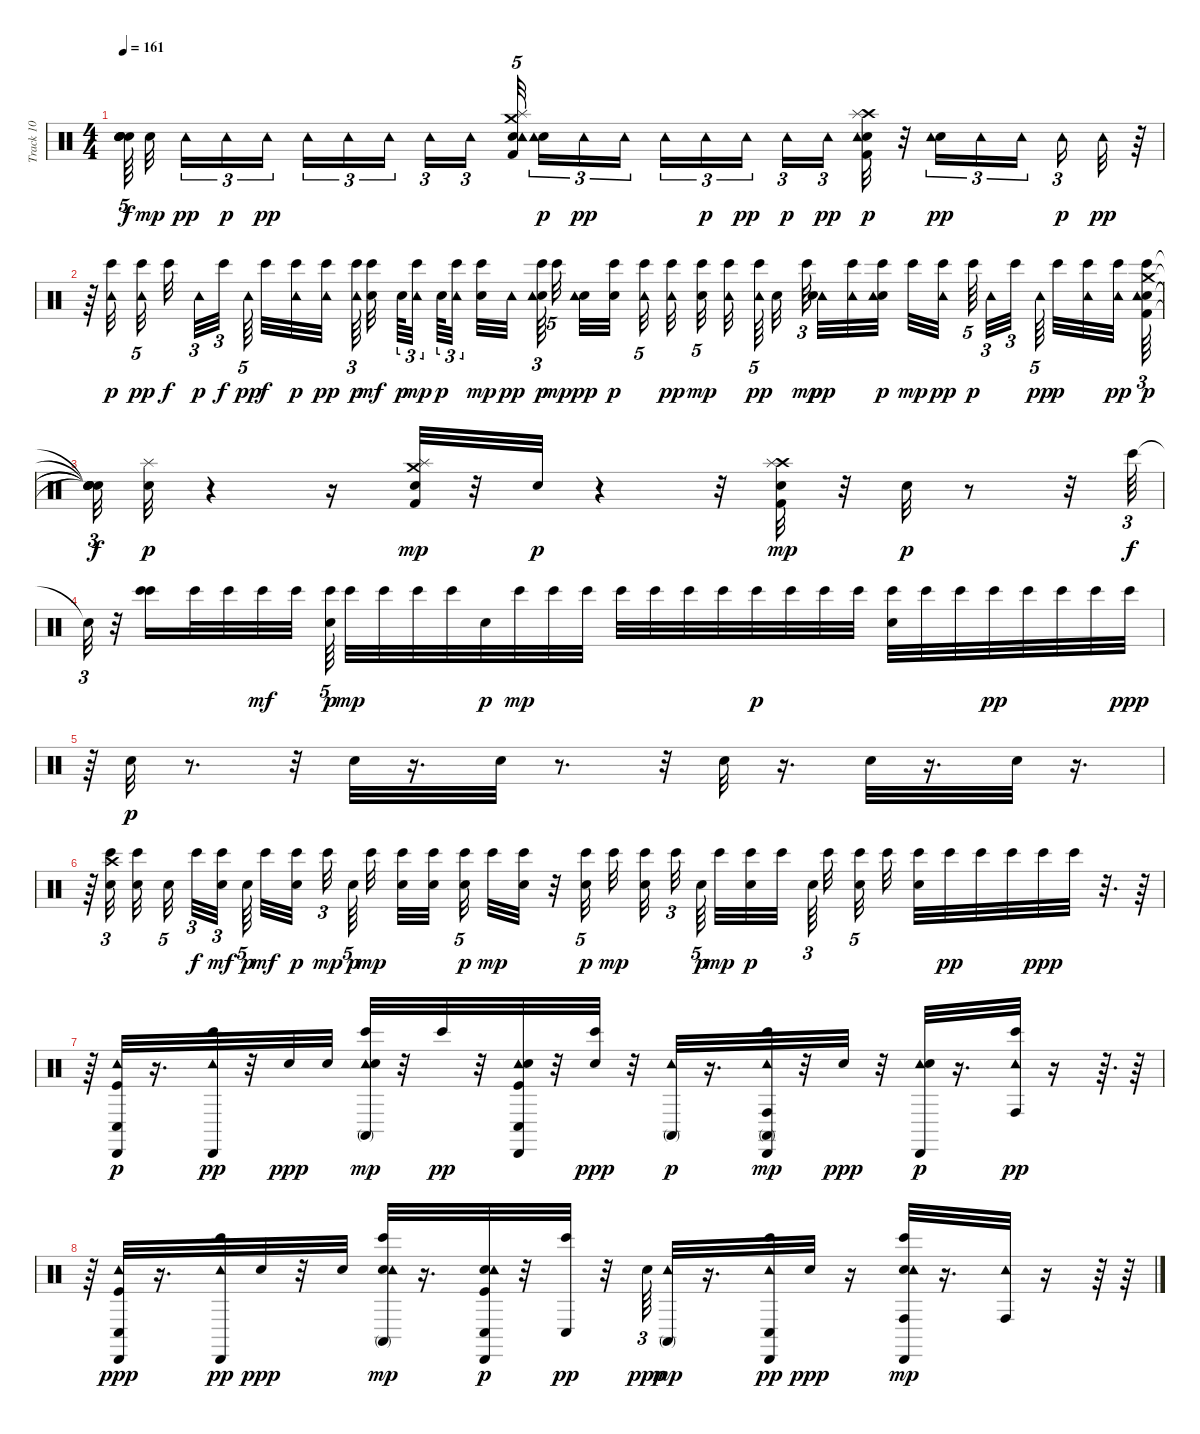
\track ("Track 10" "Track 10") {instrument percussion}
\staff {score}
\articulation defaults
\ts (4 4)
\tempo 161
\clef neutral
\ks c
("Snare (hit)"{t} "Snare (hit)"{t} "Snare (hit)"{t} "Snare (hit)"{t} "Snare (hit)"{t}).64{tu (5 4) dy f beam splitsecondary} "Electric Snare (hit)".32{dy mp beam splitsecondary} "Tambourine (hit)".16{tu (3 2) dy pp} "Tambourine (hit)".16{tu (3 2) dy p} "Tambourine (hit)".16{tu (3 2) dy pp beam splitsecondary} "Tambourine (hit)".16{tu (3 2)} "Tambourine (hit)".16{tu (3 2)} "Tambourine (hit)".16{tu (3 2) beam splitsecondary} "Tambourine (hit)".16{tu (3 2)} "Tambourine (hit)".16{tu (3 2)} ("Crash medium (hit)" "Electric Snare (hit)" "Splash (hit)" "Kick (hit) 2" "Tambourine (hit)").32{tu (5 4)} ("Electric Snare (hit)" "Tambourine (hit)").16{tu (3 2) dy p} "Tambourine (hit)".16{tu (3 2) dy pp} "Tambourine (hit)".16{tu (3 2)} "Tambourine (hit)".16{tu (3 2)} "Tambourine (hit)".16{tu (3 2) dy p} "Tambourine (hit)".16{tu (3 2) dy pp beam splitsecondary} "Tambourine (hit)".16{tu (3 2) dy p} "Tambourine (hit)".16{tu (3 2) dy pp beam splitsecondary} ("Crash high (hit)" "Electric Snare (hit)" "Kick (hit) 2" "Splash (hit)" "Tambourine (hit)").32{dy p} r.32 ("Electric Snare (hit)" "Tambourine (hit)").16{tu (3 2) dy pp} "Tambourine (hit)".16{tu (3 2)} "Tambourine (hit)".16{tu (3 2) beam splitsecondary} "Tambourine (hit)".16{tu (3 2) dy p} "Tambourine (hit)".32{dy pp} r.64 |
r.64 ("Bongo High (hit)" "Tambourine (hit)").32{dy p beam splitsecondary} ("Bongo High (hit)" "Tambourine (hit)").32{tu (5 4) dy pp beam splitsecondary} "Bongo High (hit)".32{dy f beam splitsecondary} "Tambourine (hit)".32{tu (3 2) dy p} "Bongo High (hit)".32{tu (3 2) dy f} "Tambourine (hit)".64{tu (5 4) dy pp beam splitsecondary} "Bongo High (hit)".32{dy f} ("Tambourine (hit)" "Bongo High (hit)").32{dy p} ("Bongo High (hit)" "Tambourine (hit)").32{dy pp} ("Bongo High (hit)" "Tambourine (hit)").64{tu (3 2) dy p beam splitsecondary} ("Electric Snare (hit)" "Bongo High (hit)").32{dy mf beam splitsecondary} "Electric Snare (hit)".64{tu (3 2) dy p} ("Tambourine (hit)" "Bongo High (hit)").32{tu (3 2) dy mp beam splitsecondary} "Electric Snare (hit)".64{tu (3 2) dy p} ("Bongo High (hit)" "Tambourine (hit)").32{tu (3 2) beam splitsecondary} ("Electric Snare (hit)" "Bongo High (hit)").32{dy mp} "Tambourine (hit)".32{dy pp beam splitsecondary} ("Bongo High (hit)" "Electric Snare (hit)" "Tambourine (hit)").64{tu (3 2) dy p} "Bongo High (hit)".32{tu (5 4) dy mp beam splitsecondary} ("Electric Snare (hit)" "Tambourine (hit)").32{dy pp} ("Bongo High (hit)" "Electric Snare (hit)").32{dy p} ("Bongo High (hit)" "Tambourine (hit)").32{tu (5 4) beam splitsecondary} ("Bongo High (hit)" "Tambourine (hit)").32{dy pp beam splitsecondary} ("Electric Snare (hit)" "Bongo High (hit)").32{tu (5 4) dy mp beam splitsecondary} ("Tambourine (hit)" "Bongo High (hit)").32{beam splitsecondary} ("Bongo High (hit)" "Tambourine (hit)").64{tu (5 4) dy pp beam splitsecondary} "Electric Snare (hit)".32{beam splitsecondary} "Bongo High (hit)".64{tu (3 2) dy mp beam splitsecondary} ("Tambourine (hit)" "Electric Snare (hit)").32{dy pp} ("Bongo High (hit)" "Tambourine (hit)").32 ("Bongo High (hit)" "Electric Snare (hit)" "Tambourine (hit)").32{dy p} "Bongo High (hit)".32{dy mp} ("Bongo High (hit)" "Tambourine (hit)").32{dy pp beam splitsecondary} "Bongo High (hit)".64{tu (5 4) dy p} "Tambourine (hit)".32{tu (3 2)} "Bongo High (hit)".32{tu (3 2)} "Tambourine (hit)".64{tu (5 4) dy pp beam splitsecondary} "Bongo High (hit)".32{dy p} ("Tambourine (hit)" "Bongo High (hit)").32 ("Bongo High (hit)" "Tambourine (hit)").32{dy pp beam splitsecondary} ("Bongo High (hit)" "Crash medium (hit)" "Electric Snare (hit)" "Kick (hit) 2" "Tambourine (hit)").64{tu (3 2) dy p} |
("Snare (hit)"{t} "Snare (hit)"{t} "Snare (hit)"{t} "Snare (hit)"{t} "Snare (hit)"{t}).32{tu (3 2) dy f} ("Splash (hit)" "Electric Snare (hit)").32{dy p} r.4 r.16 ("Crash medium (hit)" "Splash (hit)" "Kick (hit) 2" "Electric Snare (hit)").32{dy mp} r.32 "Electric Snare (hit)".32{dy p} r.4 r.32 ("Crash high (hit)" "Splash (hit)" "Electric Snare (hit)" "Kick (hit) 2").32{dy mp} r.32 "Electric Snare (hit)".32{dy p} r.8 r.32 "Bongo High (hit)".64{tu (3 2) dy f} |
"Snare (hit)"{t}.32{tu (3 2)} r.32 ("Bongo High (hit)" "Bongo High (hit)").16 "Bongo High (hit)".32 "Bongo High (hit)".32 "Bongo High (hit)".32{dy mf} "Bongo High (hit)".32{beam splitsecondary} ("Bongo High (hit)" "Electric Snare (hit)").64{tu (5 4) dy p} "Bongo High (hit)".32{dy mp} "Bongo High (hit)".32 "Bongo High (hit)".32 "Bongo High (hit)".32 "Electric Snare (hit)".32{dy p} "Bongo High (hit)".32{dy mp} "Bongo High (hit)".32 "Bongo High (hit)".32 "Bongo High (hit)".32 "Bongo High (hit)".32 "Bongo High (hit)".32 "Bongo High (hit)".32 "Bongo High (hit)".32{dy p} "Bongo High (hit)".32 "Bongo High (hit)".32 "Bongo High (hit)".32 ("Electric Snare (hit)" "Bongo High (hit)").32 "Bongo High (hit)".32 "Bongo High (hit)".32 "Bongo High (hit)".32{dy pp} "Bongo High (hit)".32 "Bongo High (hit)".32 "Bongo High (hit)".32 "Bongo High (hit)".32{dy ppp} |
r.64 "Electric Snare (hit)".32{dy p} r.8{d} r.32 "Electric Snare (hit)".32 r.16{d} "Electric Snare (hit)".32 r.8{d} r.32 "Electric Snare (hit)".32 r.16{d} "Electric Snare (hit)".32 r.16{d} "Electric Snare (hit)".32 r.16{d} |
r.64 ("Crash high (hit)" "Electric Snare (hit)" "Bongo High (hit)").32{tu (3 2) beam splitsecondary} ("Electric Snare (hit)" "Bongo High (hit)").32{beam splitsecondary} "Electric Snare (hit)".32{tu (5 4)} "Bongo High (hit)".32{tu (3 2) dy f} ("Electric Snare (hit)" "Bongo High (hit)").32{tu (3 2) dy mf} "Electric Snare (hit)".64{tu (5 4) dy p beam splitsecondary} "Bongo High (hit)".32{dy mf} ("Bongo High (hit)" "Electric Snare (hit)").32{dy p beam splitsecondary} "Bongo High (hit)".32{tu (3 2) dy mp} "Electric Snare (hit)".64{tu (5 4) dy p beam splitsecondary} "Bongo High (hit)".32{dy mp} ("Electric Snare (hit)" "Bongo High (hit)").32 ("Electric Snare (hit)" "Bongo High (hit)").32{beam splitsecondary} ("Bongo High (hit)" "Electric Snare (hit)").32{tu (5 4) dy p beam splitsecondary} "Bongo High (hit)".32{dy mp} ("Electric Snare (hit)" "Bongo High (hit)").32 r.32 ("Bongo High (hit)" "Electric Snare (hit)").32{tu (5 4) dy p} "Bongo High (hit)".32{dy mp} ("Electric Snare (hit)" "Bongo High (hit)").32{beam splitsecondary} "Bongo High (hit)".32{tu (3 2)} "Electric Snare (hit)".64{tu (5 4) dy p beam splitsecondary} "Bongo High (hit)".32{dy mp} ("Bongo High (hit)" "Electric Snare (hit)").32{dy p} "Bongo High (hit)".32{beam splitsecondary} "Electric Snare (hit)".64{tu (3 2) beam splitsecondary} "Bongo High (hit)".32{beam splitsecondary} ("Bongo High (hit)" "Electric Snare (hit)").32{tu (5 4)} "Bongo High (hit)".32 ("Electric Snare (hit)" "Bongo High (hit)").32 "Bongo High (hit)".32{dy pp} "Bongo High (hit)".32 "Bongo High (hit)".32 "Bongo High (hit)".32{dy ppp} "Bongo High (hit)".32 r.32{d} r.64 |
r.64 ("Cabasa (hit)" "Conga low (hit)" "Tambourine (hit)" "Kick (hit)").32{dy p} r.16{d} ("Tambourine (hit)" "Cabasa (hit)" "Bongo High (hit)").32{dy pp} r.32 "Electric Snare (hit)".32{dy ppp} "Electric Snare (hit)".32 ("Tambourine (hit)" "Bongo High (hit)" "Conga high (mute)" "Electric Snare (hit)").32{dy mp} r.32 "Bongo High (hit)".32{dy pp} r.32 ("Tambourine (hit)" "Conga low (hit)" "Cabasa (hit)" "Kick (hit)" "Electric Snare (hit)").32 r.32 ("Bongo High (hit)" "Electric Snare (hit)").32{dy ppp} r.32 ("Tambourine (hit)" "Conga high (mute)").32{dy p} r.16{d} ("Tambourine (hit)" "Cabasa (hit)" "Bongo High (hit)" "Conga high (mute)" "Conga high (hit)").32{dy mp} r.32 "Electric Snare (hit)".32{dy ppp} r.32 ("Tambourine (hit)" "Cabasa (hit)" "Electric Snare (hit)").32{dy p} r.16{d} ("Tambourine (hit)" "Conga high (hit)" "Bongo High (hit)").32{dy pp} r.16 r.64{d} r.64 |
r.64 ("Kick (hit)" "Tambourine (hit)" "Cabasa (hit)" "Conga low (hit)").32{dy ppp} r.16{d} ("Tambourine (hit)" "Cabasa (hit)" "Bongo High (hit)").32{dy pp} "Electric Snare (hit)".32{dy ppp} r.32 "Electric Snare (hit)".32 ("Electric Snare (hit)" "Tambourine (hit)" "Bongo High (hit)" "Conga high (mute)").32{dy mp} r.16{d} ("Electric Snare (hit)" "Tambourine (hit)" "Cabasa (hit)" "Conga low (hit)" "Kick (hit)").32{dy p} r.32 ("Bongo High (hit)" "Conga low (hit)").32{dy pp} r.32 "Electric Snare (hit)".64{tu (3 2) dy ppp} ("Tambourine (hit)" "Conga high (mute)").32{dy mp} r.16{d} ("Bongo High (hit)" "Tambourine (hit)" "Cabasa (hit)" "Conga low (hit)").32{dy pp} "Electric Snare (hit)".32{dy ppp} r.16 ("Electric Snare (hit)" "Bongo High (hit)" "Tambourine (hit)" "Cabasa (hit)" "Conga high (hit)").32{dy mp} r.16{d} ("Tambourine (hit)" "Conga high (hit)").32 r.16 r.64 r.64
